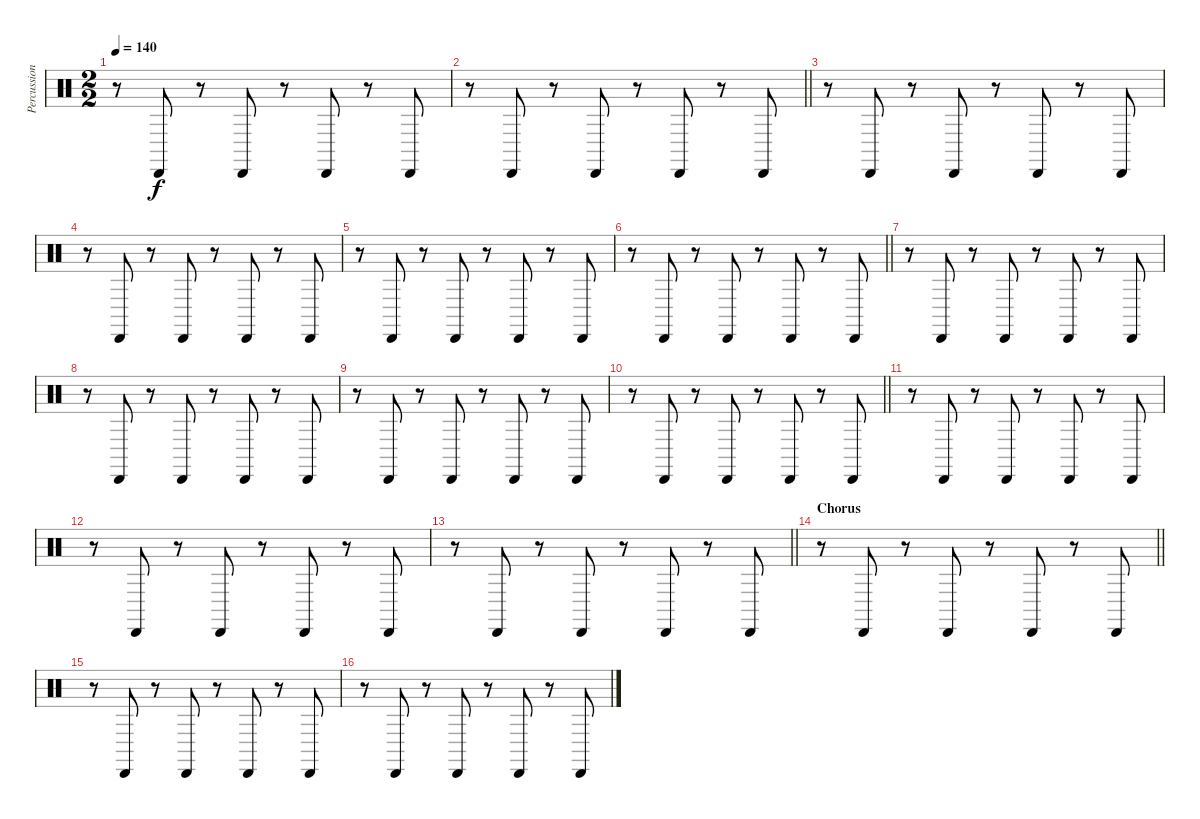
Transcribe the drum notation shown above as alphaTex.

\track ("Percussion 2" "Percussion") {instrument percussion}
\staff {score}
\articulation defaults
\ts (2 2)
\tempo 140
\clef neutral
\ks c
r.8{dy f} "Cabasa (hit)".8 r.8 "Cabasa (hit)".8 r.8 "Cabasa (hit)".8 r.8 "Cabasa (hit)".8 |
\barLineRight lightlight
r.8 "Cabasa (hit)".8 r.8 "Cabasa (hit)".8 r.8 "Cabasa (hit)".8 r.8 "Cabasa (hit)".8 |
r.8 "Cabasa (hit)".8 r.8 "Cabasa (hit)".8 r.8 "Cabasa (hit)".8 r.8 "Cabasa (hit)".8 |
r.8 "Cabasa (hit)".8 r.8 "Cabasa (hit)".8 r.8 "Cabasa (hit)".8 r.8 "Cabasa (hit)".8 |
r.8 "Cabasa (hit)".8 r.8 "Cabasa (hit)".8 r.8 "Cabasa (hit)".8 r.8 "Cabasa (hit)".8 |
\barLineRight lightlight
r.8 "Cabasa (hit)".8 r.8 "Cabasa (hit)".8 r.8 "Cabasa (hit)".8 r.8 "Cabasa (hit)".8 |
r.8 "Cabasa (hit)".8 r.8 "Cabasa (hit)".8 r.8 "Cabasa (hit)".8 r.8 "Cabasa (hit)".8 |
r.8 "Cabasa (hit)".8 r.8 "Cabasa (hit)".8 r.8 "Cabasa (hit)".8 r.8 "Cabasa (hit)".8 |
r.8 "Cabasa (hit)".8 r.8 "Cabasa (hit)".8 r.8 "Cabasa (hit)".8 r.8 "Cabasa (hit)".8 |
\barLineRight lightlight
r.8 "Cabasa (hit)".8 r.8 "Cabasa (hit)".8 r.8 "Cabasa (hit)".8 r.8 "Cabasa (hit)".8 |
r.8 "Cabasa (hit)".8 r.8 "Cabasa (hit)".8 r.8 "Cabasa (hit)".8 r.8 "Cabasa (hit)".8 |
r.8 "Cabasa (hit)".8 r.8 "Cabasa (hit)".8 r.8 "Cabasa (hit)".8 r.8 "Cabasa (hit)".8 |
\barLineRight lightlight
r.8 "Cabasa (hit)".8 r.8 "Cabasa (hit)".8 r.8 "Cabasa (hit)".8 r.8 "Cabasa (hit)".8 |
\section ("" "Chorus")
\barLineRight lightlight
r.8 "Cabasa (hit)".8 r.8 "Cabasa (hit)".8 r.8 "Cabasa (hit)".8 r.8 "Cabasa (hit)".8 |
r.8 "Cabasa (hit)".8 r.8 "Cabasa (hit)".8 r.8 "Cabasa (hit)".8 r.8 "Cabasa (hit)".8 |
r.8 "Cabasa (hit)".8 r.8 "Cabasa (hit)".8 r.8 "Cabasa (hit)".8 r.8 "Cabasa (hit)".8
